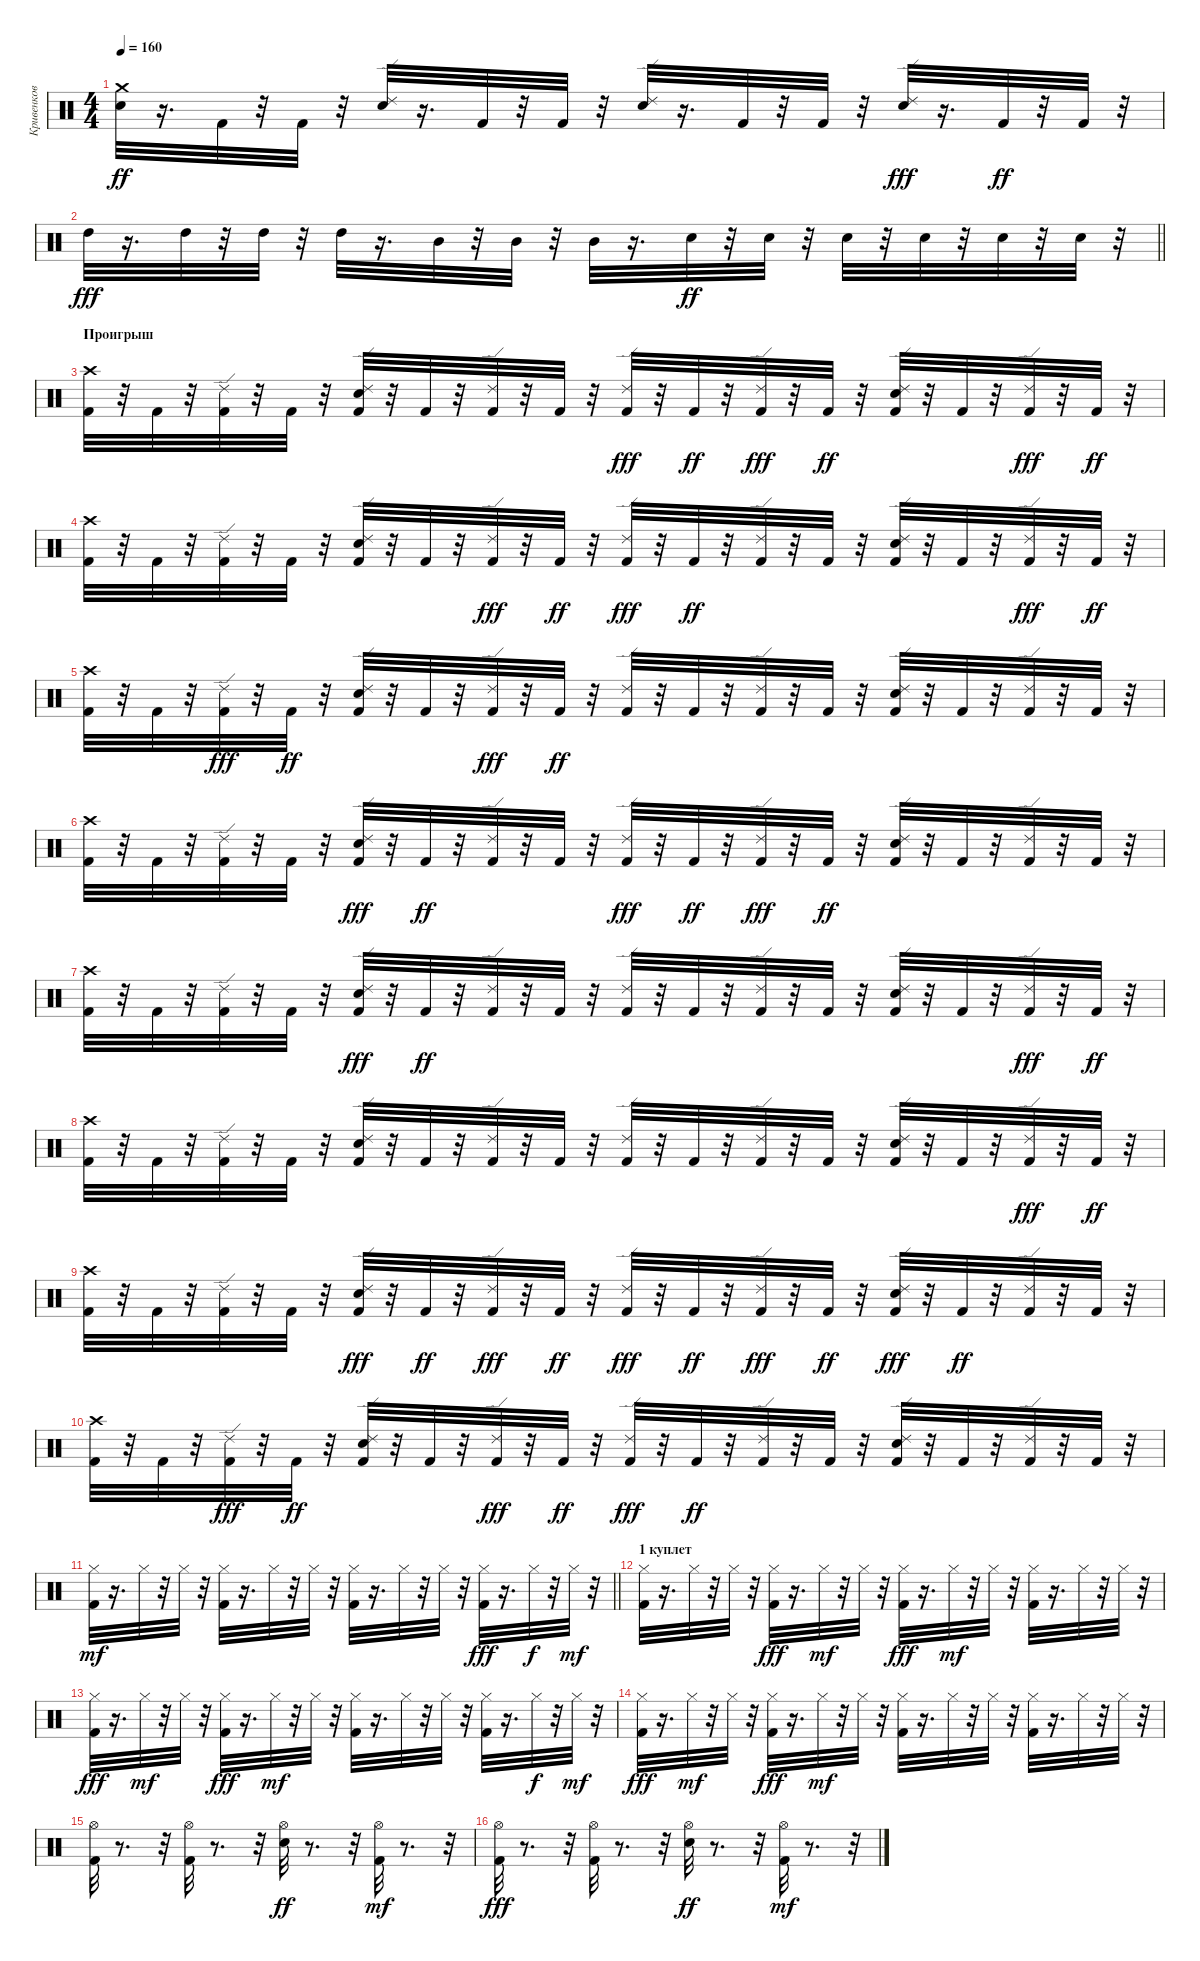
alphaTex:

\track ("Кривенков" "Кривенков") {instrument percussion}
\staff {score}
\articulation defaults
\ts (4 4)
\tempo 160
\clef neutral
\ks c
("Crash medium (hit)" "Electric Snare (hit)").32{dy ff} r.16{d} "Kick (hit) 2".32 r.32 "Kick (hit) 2".32 r.32 ("Ride (edge) 2" "Electric Snare (hit)").32 r.16{d} "Kick (hit) 2".32 r.32 "Kick (hit) 2".32 r.32 ("Ride (edge) 2" "Electric Snare (hit)").32 r.16{d} "Kick (hit) 2".32 r.32 "Kick (hit) 2".32 r.32 ("Electric Snare (hit)" "Ride (edge) 2").32{dy fff} r.16{d} "Kick (hit) 2".32{dy ff} r.32 "Kick (hit) 2".32 r.32 |
\barLineRight lightlight "High Tom (hit)".32{dy fff}
r.16{d} "High Tom (hit)".32 r.32 "High Tom (hit)".32 r.32 "High Tom (hit)".32 r.16{d} "Mid Tom (hit)".32 r.32 "Mid Tom (hit)".32 r.32 "Mid Tom (hit)".32 r.16{d} "Electric Snare (hit)".32{dy ff} r.32 "Electric Snare (hit)".32 r.32 "Electric Snare (hit)".32 r.32 "Electric Snare (hit)".32 r.32 "Electric Snare (hit)".32 r.32 "Electric Snare (hit)".32 r.32 |
\section ("" "Проигрыш")
("Crash high (hit)" "Kick (hit) 2").32 r.32 "Kick (hit) 2".32 r.32 ("Ride (edge) 2" "Kick (hit) 2").32 r.32 "Kick (hit) 2".32 r.32 ("Ride (edge) 2" "Kick (hit) 2" "Electric Snare (hit)").32 r.32 "Kick (hit) 2".32 r.32 ("Ride (edge) 2" "Kick (hit) 2").32 r.32 "Kick (hit) 2".32 r.32 ("Kick (hit) 2" "Ride (edge) 2").32{dy fff} r.32 "Kick (hit) 2".32{dy ff} r.32 ("Kick (hit) 2" "Ride (edge) 2").32{dy fff} r.32 "Kick (hit) 2".32{dy ff} r.32 ("Kick (hit) 2" "Ride (edge) 2" "Electric Snare (hit)").32 r.32 "Kick (hit) 2".32 r.32 ("Kick (hit) 2" "Ride (edge) 2").32{dy fff} r.32 "Kick (hit) 2".32{dy ff} r.32 |
("Crash high (hit)" "Kick (hit) 2").32 r.32 "Kick (hit) 2".32 r.32 ("Ride (edge) 2" "Kick (hit) 2").32 r.32 "Kick (hit) 2".32 r.32 ("Kick (hit) 2" "Ride (edge) 2" "Electric Snare (hit)").32 r.32 "Kick (hit) 2".32 r.32 ("Kick (hit) 2" "Ride (edge) 2").32{dy fff} r.32 "Kick (hit) 2".32{dy ff} r.32 ("Kick (hit) 2" "Ride (edge) 2").32{dy fff} r.32 "Kick (hit) 2".32{dy ff} r.32 ("Ride (edge) 2" "Kick (hit) 2").32 r.32 "Kick (hit) 2".32 r.32 ("Electric Snare (hit)" "Ride (edge) 2" "Kick (hit) 2").32 r.32 "Kick (hit) 2".32 r.32 ("Kick (hit) 2" "Ride (edge) 2").32{dy fff} r.32 "Kick (hit) 2".32{dy ff} r.32 |
("Kick (hit) 2" "Crash high (hit)").32 r.32 "Kick (hit) 2".32 r.32 ("Kick (hit) 2" "Ride (edge) 2").32{dy fff} r.32 "Kick (hit) 2".32{dy ff} r.32 ("Electric Snare (hit)" "Ride (edge) 2" "Kick (hit) 2").32 r.32 "Kick (hit) 2".32 r.32 ("Kick (hit) 2" "Ride (edge) 2").32{dy fff} r.32 "Kick (hit) 2".32{dy ff} r.32 ("Ride (edge) 2" "Kick (hit) 2").32 r.32 "Kick (hit) 2".32 r.32 ("Ride (edge) 2" "Kick (hit) 2").32 r.32 "Kick (hit) 2".32 r.32 ("Kick (hit) 2" "Ride (edge) 2" "Electric Snare (hit)").32 r.32 "Kick (hit) 2".32 r.32 ("Ride (edge) 2" "Kick (hit) 2").32 r.32 "Kick (hit) 2".32 r.32 |
("Crash high (hit)" "Kick (hit) 2").32 r.32 "Kick (hit) 2".32 r.32 ("Ride (edge) 2" "Kick (hit) 2").32 r.32 "Kick (hit) 2".32 r.32 ("Kick (hit) 2" "Electric Snare (hit)" "Ride (edge) 2").32{dy fff} r.32 "Kick (hit) 2".32{dy ff} r.32 ("Ride (edge) 2" "Kick (hit) 2").32 r.32 "Kick (hit) 2".32 r.32 ("Kick (hit) 2" "Ride (edge) 2").32{dy fff} r.32 "Kick (hit) 2".32{dy ff} r.32 ("Kick (hit) 2" "Ride (edge) 2").32{dy fff} r.32 "Kick (hit) 2".32{dy ff} r.32 ("Ride (edge) 2" "Electric Snare (hit)" "Kick (hit) 2").32 r.32 "Kick (hit) 2".32 r.32 ("Ride (edge) 2" "Kick (hit) 2").32 r.32 "Kick (hit) 2".32 r.32 |
("Kick (hit) 2" "Crash high (hit)").32 r.32 "Kick (hit) 2".32 r.32 ("Ride (edge) 2" "Kick (hit) 2").32 r.32 "Kick (hit) 2".32 r.32 ("Electric Snare (hit)" "Kick (hit) 2" "Ride (edge) 2").32{dy fff} r.32 "Kick (hit) 2".32{dy ff} r.32 ("Ride (edge) 2" "Kick (hit) 2").32 r.32 "Kick (hit) 2".32 r.32 ("Ride (edge) 2" "Kick (hit) 2").32 r.32 "Kick (hit) 2".32 r.32 ("Ride (edge) 2" "Kick (hit) 2").32 r.32 "Kick (hit) 2".32 r.32 ("Kick (hit) 2" "Ride (edge) 2" "Electric Snare (hit)").32 r.32 "Kick (hit) 2".32 r.32 ("Kick (hit) 2" "Ride (edge) 2").32{dy fff} r.32 "Kick (hit) 2".32{dy ff} r.32 |
("Kick (hit) 2" "Crash high (hit)").32 r.32 "Kick (hit) 2".32 r.32 ("Ride (edge) 2" "Kick (hit) 2").32 r.32 "Kick (hit) 2".32 r.32 ("Kick (hit) 2" "Ride (edge) 2" "Electric Snare (hit)").32 r.32 "Kick (hit) 2".32 r.32 ("Ride (edge) 2" "Kick (hit) 2").32 r.32 "Kick (hit) 2".32 r.32 ("Ride (edge) 2" "Kick (hit) 2").32 r.32 "Kick (hit) 2".32 r.32 ("Ride (edge) 2" "Kick (hit) 2").32 r.32 "Kick (hit) 2".32 r.32 ("Ride (edge) 2" "Kick (hit) 2" "Electric Snare (hit)").32 r.32 "Kick (hit) 2".32 r.32 ("Kick (hit) 2" "Ride (edge) 2").32{dy fff} r.32 "Kick (hit) 2".32{dy ff} r.32 |
("Crash high (hit)" "Kick (hit) 2").32 r.32 "Kick (hit) 2".32 r.32 ("Ride (edge) 2" "Kick (hit) 2").32 r.32 "Kick (hit) 2".32 r.32 ("Electric Snare (hit)" "Kick (hit) 2" "Ride (edge) 2").32{dy fff} r.32 "Kick (hit) 2".32{dy ff} r.32 ("Kick (hit) 2" "Ride (edge) 2").32{dy fff} r.32 "Kick (hit) 2".32{dy ff} r.32 ("Kick (hit) 2" "Ride (edge) 2").32{dy fff} r.32 "Kick (hit) 2".32{dy ff} r.32 ("Kick (hit) 2" "Ride (edge) 2").32{dy fff} r.32 "Kick (hit) 2".32{dy ff} r.32 ("Electric Snare (hit)" "Kick (hit) 2" "Ride (edge) 2").32{dy fff} r.32 "Kick (hit) 2".32{dy ff} r.32 ("Ride (edge) 2" "Kick (hit) 2").32 r.32 "Kick (hit) 2".32 r.32 |
("Crash high (hit)" "Kick (hit) 2").32 r.32 "Kick (hit) 2".32 r.32 ("Kick (hit) 2" "Ride (edge) 2").32{dy fff} r.32 "Kick (hit) 2".32{dy ff} r.32 ("Kick (hit) 2" "Ride (edge) 2" "Electric Snare (hit)").32 r.32 "Kick (hit) 2".32 r.32 ("Kick (hit) 2" "Ride (edge) 2").32{dy fff} r.32 "Kick (hit) 2".32{dy ff} r.32 ("Kick (hit) 2" "Ride (edge) 2").32{dy fff} r.32 "Kick (hit) 2".32{dy ff} r.32 ("Ride (edge) 2" "Kick (hit) 2").32 r.32 "Kick (hit) 2".32 r.32 ("Kick (hit) 2" "Ride (edge) 2" "Electric Snare (hit)").32 r.32 "Kick (hit) 2".32 r.32 ("Ride (edge) 2" "Kick (hit) 2").32 r.32 "Kick (hit) 2".32 r.32 |
\barLineRight lightlight
("Kick (hit) 2" "Hi-Hat (closed)").32{dy mf} r.16{d} "Hi-Hat (closed)".32 r.32 "Hi-Hat (closed)".32 r.32 ("Kick (hit) 2" "Hi-Hat (closed)").32 r.16{d} "Hi-Hat (closed)".32 r.32 "Hi-Hat (closed)".32 r.32 ("Kick (hit) 2" "Hi-Hat (closed)").32 r.16{d} "Hi-Hat (closed)".32 r.32 "Hi-Hat (closed)".32 r.32 ("Hi-Hat (closed)" "Kick (hit) 2").32{dy fff} r.16{d} "Hi-Hat (closed)".32{dy f} r.32 "Hi-Hat (closed)".32{dy mf} r.32 |
\section ("" "1 куплет")
("Kick (hit) 2" "Hi-Hat (closed)").32 r.16{d} "Hi-Hat (closed)".32 r.32 "Hi-Hat (closed)".32 r.32 ("Hi-Hat (closed)" "Kick (hit) 2").32{dy fff} r.16{d} "Hi-Hat (closed)".32{dy mf} r.32 "Hi-Hat (closed)".32 r.32 ("Hi-Hat (closed)" "Kick (hit) 2").32{dy fff} r.16{d} "Hi-Hat (closed)".32{dy mf} r.32 "Hi-Hat (closed)".32 r.32 ("Kick (hit) 2" "Hi-Hat (closed)").32 r.16{d} "Hi-Hat (closed)".32 r.32 "Hi-Hat (closed)".32 r.32 |
("Hi-Hat (closed)" "Kick (hit) 2").32{dy fff} r.16{d} "Hi-Hat (closed)".32{dy mf} r.32 "Hi-Hat (closed)".32 r.32 ("Hi-Hat (closed)" "Kick (hit) 2").32{dy fff} r.16{d} "Hi-Hat (closed)".32{dy mf} r.32 "Hi-Hat (closed)".32 r.32 ("Kick (hit) 2" "Hi-Hat (closed)").32 r.16{d} "Hi-Hat (closed)".32 r.32 "Hi-Hat (closed)".32 r.32 ("Kick (hit) 2" "Hi-Hat (closed)").32 r.16{d} "Hi-Hat (closed)".32{dy f} r.32 "Hi-Hat (closed)".32{dy mf} r.32 |
("Hi-Hat (closed)" "Kick (hit) 2").32{dy fff} r.16{d} "Hi-Hat (closed)".32{dy mf} r.32 "Hi-Hat (closed)".32 r.32 ("Hi-Hat (closed)" "Kick (hit) 2").32{dy fff} r.16{d} "Hi-Hat (closed)".32{dy mf} r.32 "Hi-Hat (closed)".32 r.32 ("Kick (hit) 2" "Hi-Hat (closed)").32 r.16{d} "Hi-Hat (closed)".32 r.32 "Hi-Hat (closed)".32 r.32 ("Kick (hit) 2" "Hi-Hat (closed)").32 r.16{d} "Hi-Hat (closed)".32 r.32 "Hi-Hat (closed)".32 r.32 |
("Kick (hit) 2" "Hi-Hat (open)").32 r.8{d} r.32 ("Kick (hit) 2" "Hi-Hat (open)").32 r.8{d} r.32 ("Hi-Hat (open)" "Electric Snare (hit)").32{dy ff} r.8{d} r.32 ("Hi-Hat (open)" "Kick (hit) 2").32{dy mf} r.8{d} r.32 |
("Hi-Hat (open)" "Kick (hit) 2").32{dy fff} r.8{d} r.32 ("Hi-Hat (open)" "Kick (hit) 2").32 r.8{d} r.32 ("Hi-Hat (open)" "Electric Snare (hit)").32{dy ff} r.8{d} r.32 ("Hi-Hat (open)" "Kick (hit) 2").32{dy mf} r.8{d} r.32
